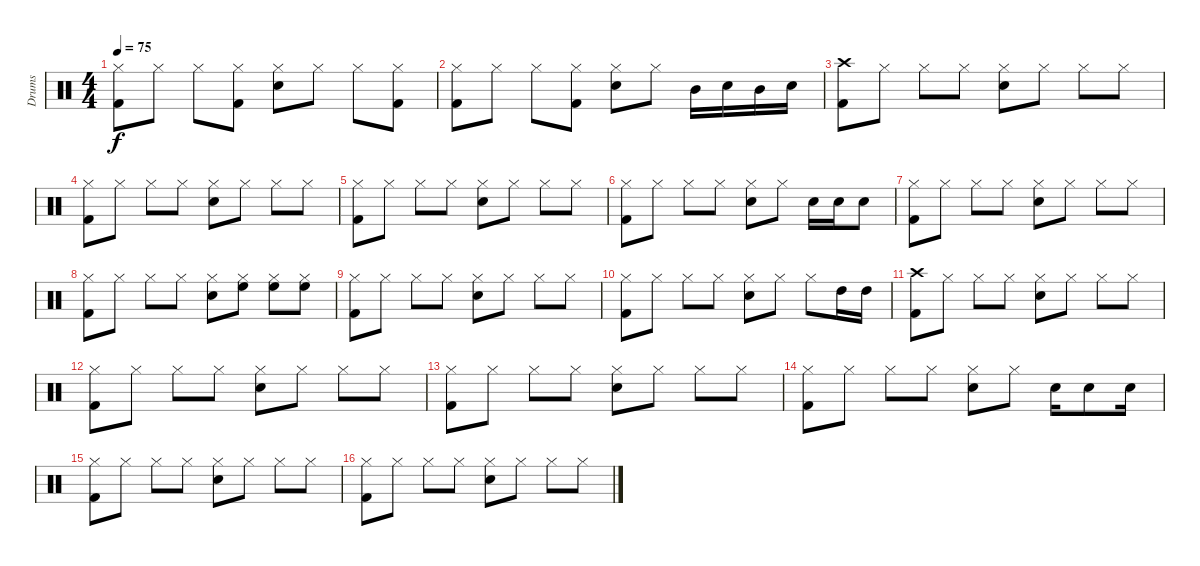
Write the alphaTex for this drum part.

\track ("Drums" "Drums") {instrument percussion}
\staff {score}
\articulation defaults
\ts (4 4)
\tempo 75
\clef neutral
\ks c
("Kick (hit) 2" "Hi-Hat (closed)").8{dy f} "Hi-Hat (closed)".8 "Hi-Hat (closed)".8 ("Kick (hit) 2" "Hi-Hat (closed)").8 ("Snare (hit) 2" "Hi-Hat (closed)").8 "Hi-Hat (closed)".8 "Hi-Hat (closed)".8 ("Kick (hit) 2" "Hi-Hat (closed)").8 |
("Kick (hit) 2" "Hi-Hat (closed)").8 "Hi-Hat (closed)".8 "Hi-Hat (closed)".8 ("Kick (hit) 2" "Hi-Hat (closed)").8 ("Snare (hit) 2" "Hi-Hat (closed)").8 "Hi-Hat (closed)".8 "Mid Tom (hit)".16 "Snare (hit) 2".16 "Mid Tom (hit)".16 "Snare (hit) 2".16 |
("Kick (hit) 2" "Crash high (hit)").8 "Hi-Hat (closed)".8 "Hi-Hat (closed)".8 "Hi-Hat (closed)".8 ("Snare (hit) 2" "Hi-Hat (closed)").8 "Hi-Hat (closed)".8 "Hi-Hat (closed)".8 "Hi-Hat (closed)".8 |
("Kick (hit) 2" "Hi-Hat (closed)").8 "Hi-Hat (closed)".8 "Hi-Hat (closed)".8 "Hi-Hat (closed)".8 ("Snare (hit) 2" "Hi-Hat (closed)").8 "Hi-Hat (closed)".8 "Hi-Hat (closed)".8 "Hi-Hat (closed)".8 |
("Kick (hit) 2" "Hi-Hat (closed)").8 "Hi-Hat (closed)".8 "Hi-Hat (closed)".8 "Hi-Hat (closed)".8 ("Snare (hit) 2" "Hi-Hat (closed)").8 "Hi-Hat (closed)".8 "Hi-Hat (closed)".8 "Hi-Hat (closed)".8 |
("Kick (hit) 2" "Hi-Hat (closed)").8 "Hi-Hat (closed)".8 "Hi-Hat (closed)".8 "Hi-Hat (closed)".8 ("Snare (hit) 2" "Hi-Hat (closed)").8 "Hi-Hat (closed)".8 "Electric Snare (hit)".16 "Electric Snare (hit)".16 "Electric Snare (hit)".8 |
("Kick (hit) 2" "Hi-Hat (closed)").8 "Hi-Hat (closed)".8 "Hi-Hat (closed)".8 "Hi-Hat (closed)".8 ("Snare (hit) 2" "Hi-Hat (closed)").8 "Hi-Hat (closed)".8 "Hi-Hat (closed)".8 "Hi-Hat (closed)".8 |
("Kick (hit) 2" "Hi-Hat (closed)").8 "Hi-Hat (closed)".8 "Hi-Hat (closed)".8 "Hi-Hat (closed)".8 ("Snare (hit) 2" "Hi-Hat (closed)").8 ("Hi-Hat (closed)" "High Floor Tom (hit)").8 ("Hi-Hat (closed)" "High Floor Tom (hit)").8 ("Hi-Hat (closed)" "High Floor Tom (hit)").8 |
("Kick (hit) 2" "Hi-Hat (closed)").8 "Hi-Hat (closed)".8 "Hi-Hat (closed)".8 "Hi-Hat (closed)".8 ("Snare (hit) 2" "Hi-Hat (closed)").8 "Hi-Hat (closed)".8 "Hi-Hat (closed)".8 "Hi-Hat (closed)".8 |
("Kick (hit) 2" "Hi-Hat (closed)").8 "Hi-Hat (closed)".8 "Hi-Hat (closed)".8 "Hi-Hat (closed)".8 ("Snare (hit) 2" "Hi-Hat (closed)").8 "Hi-Hat (closed)".8 "Hi-Hat (closed)".8 "High Tom (hit)".16 "High Tom (hit)".16 |
("Kick (hit) 2" "Crash high (hit)").8 "Hi-Hat (closed)".8 "Hi-Hat (closed)".8 "Hi-Hat (closed)".8 ("Snare (hit) 2" "Hi-Hat (closed)").8 "Hi-Hat (closed)".8 "Hi-Hat (closed)".8 "Hi-Hat (closed)".8 |
("Kick (hit) 2" "Hi-Hat (closed)").8 "Hi-Hat (closed)".8 "Hi-Hat (closed)".8 "Hi-Hat (closed)".8 ("Snare (hit) 2" "Hi-Hat (closed)").8 "Hi-Hat (closed)".8 "Hi-Hat (closed)".8 "Hi-Hat (closed)".8 |
("Kick (hit) 2" "Hi-Hat (closed)").8 "Hi-Hat (closed)".8 "Hi-Hat (closed)".8 "Hi-Hat (closed)".8 ("Snare (hit) 2" "Hi-Hat (closed)").8 "Hi-Hat (closed)".8 "Hi-Hat (closed)".8 "Hi-Hat (closed)".8 |
("Kick (hit) 2" "Hi-Hat (closed)").8 "Hi-Hat (closed)".8 "Hi-Hat (closed)".8 "Hi-Hat (closed)".8 ("Snare (hit) 2" "Hi-Hat (closed)").8 "Hi-Hat (closed)".8 "Snare (hit) 2".16 "Snare (hit) 2".8 "Snare (hit) 2".16 |
("Kick (hit) 2" "Hi-Hat (closed)").8 "Hi-Hat (closed)".8 "Hi-Hat (closed)".8 "Hi-Hat (closed)".8 ("Snare (hit) 2" "Hi-Hat (closed)").8 "Hi-Hat (closed)".8 "Hi-Hat (closed)".8 "Hi-Hat (closed)".8 |
("Kick (hit) 2" "Hi-Hat (closed)").8 "Hi-Hat (closed)".8 "Hi-Hat (closed)".8 "Hi-Hat (closed)".8 ("Snare (hit) 2" "Hi-Hat (closed)").8 "Hi-Hat (closed)".8 "Hi-Hat (closed)".8 "Hi-Hat (closed)".8
